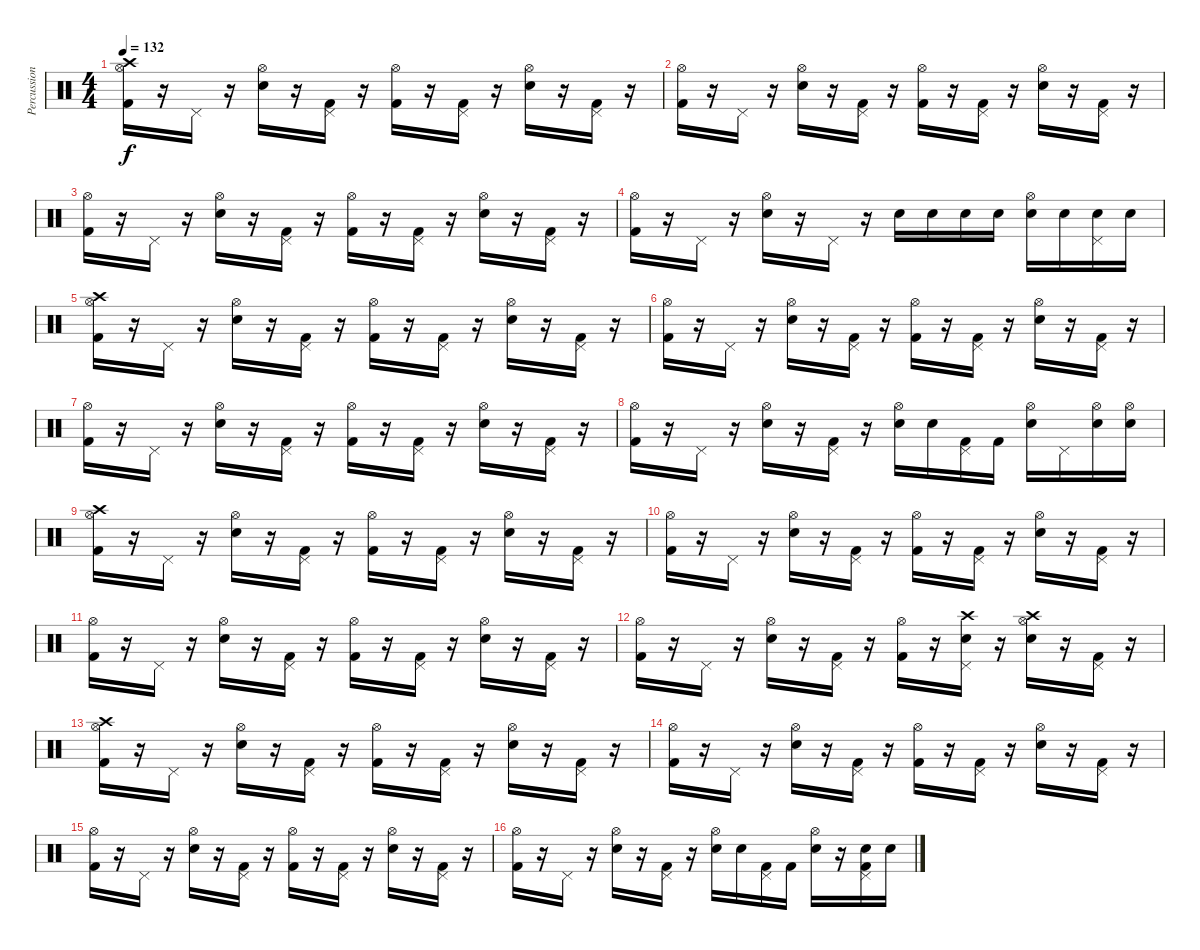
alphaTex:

\track ("Percussion" "Percussion") {instrument percussion}
\staff {score}
\articulation defaults
\ts (4 4)
\tempo 132
\clef neutral
\ks c
("Crash high (hit)" "Hi-Hat (open)" "Kick (hit) 2").16{dy f} r.16 "Pedal Hi-Hat (hit)".16 r.16 ("Hi-Hat (open)" "Snare (hit) 2").16 r.16 ("Pedal Hi-Hat (hit)" "Kick (hit) 2").16 r.16 ("Hi-Hat (open)" "Kick (hit) 2").16 r.16 ("Pedal Hi-Hat (hit)" "Kick (hit) 2").16 r.16 ("Hi-Hat (open)" "Snare (hit) 2").16 r.16 ("Pedal Hi-Hat (hit)" "Kick (hit) 2").16 r.16 |
("Kick (hit) 2" "Hi-Hat (open)").16 r.16 "Pedal Hi-Hat (hit)".16 r.16 ("Snare (hit) 2" "Hi-Hat (open)").16 r.16 ("Kick (hit) 2" "Pedal Hi-Hat (hit)").16 r.16 ("Kick (hit) 2" "Hi-Hat (open)").16 r.16 ("Kick (hit) 2" "Pedal Hi-Hat (hit)").16 r.16 ("Snare (hit) 2" "Hi-Hat (open)").16 r.16 ("Kick (hit) 2" "Pedal Hi-Hat (hit)").16 r.16 |
("Kick (hit) 2" "Hi-Hat (open)").16 r.16 "Pedal Hi-Hat (hit)".16 r.16 ("Snare (hit) 2" "Hi-Hat (open)").16 r.16 ("Kick (hit) 2" "Pedal Hi-Hat (hit)").16 r.16 ("Kick (hit) 2" "Hi-Hat (open)").16 r.16 ("Kick (hit) 2" "Pedal Hi-Hat (hit)").16 r.16 ("Snare (hit) 2" "Hi-Hat (open)").16 r.16 ("Kick (hit) 2" "Pedal Hi-Hat (hit)").16 r.16 |
("Kick (hit) 2" "Hi-Hat (open)").16 r.16 "Pedal Hi-Hat (hit)".16 r.16 ("Snare (hit) 2" "Hi-Hat (open)").16 r.16 "Pedal Hi-Hat (hit)".16 r.16 "Snare (hit) 2".16 "Snare (hit) 2".16 "Snare (hit) 2".16 "Snare (hit) 2".16 ("Snare (hit) 2" "Hi-Hat (open)").16 "Snare (hit) 2".16 ("Snare (hit) 2" "Pedal Hi-Hat (hit)").16 "Snare (hit) 2".16 |
("Kick (hit) 2" "Crash high (hit)" "Hi-Hat (open)").16 r.16 "Pedal Hi-Hat (hit)".16 r.16 ("Snare (hit) 2" "Hi-Hat (open)").16 r.16 ("Kick (hit) 2" "Pedal Hi-Hat (hit)").16 r.16 ("Kick (hit) 2" "Hi-Hat (open)").16 r.16 ("Kick (hit) 2" "Pedal Hi-Hat (hit)").16 r.16 ("Snare (hit) 2" "Hi-Hat (open)").16 r.16 ("Kick (hit) 2" "Pedal Hi-Hat (hit)").16 r.16 |
("Kick (hit) 2" "Hi-Hat (open)").16 r.16 "Pedal Hi-Hat (hit)".16 r.16 ("Snare (hit) 2" "Hi-Hat (open)").16 r.16 ("Kick (hit) 2" "Pedal Hi-Hat (hit)").16 r.16 ("Kick (hit) 2" "Hi-Hat (open)").16 r.16 ("Kick (hit) 2" "Pedal Hi-Hat (hit)").16 r.16 ("Snare (hit) 2" "Hi-Hat (open)").16 r.16 ("Kick (hit) 2" "Pedal Hi-Hat (hit)").16 r.16 |
("Kick (hit) 2" "Hi-Hat (open)").16 r.16 "Pedal Hi-Hat (hit)".16 r.16 ("Snare (hit) 2" "Hi-Hat (open)").16 r.16 ("Kick (hit) 2" "Pedal Hi-Hat (hit)").16 r.16 ("Kick (hit) 2" "Hi-Hat (open)").16 r.16 ("Kick (hit) 2" "Pedal Hi-Hat (hit)").16 r.16 ("Snare (hit) 2" "Hi-Hat (open)").16 r.16 ("Kick (hit) 2" "Pedal Hi-Hat (hit)").16 r.16 |
("Hi-Hat (open)" "Kick (hit) 2").16 r.16 "Pedal Hi-Hat (hit)".16 r.16 ("Hi-Hat (open)" "Snare (hit) 2").16 r.16 ("Pedal Hi-Hat (hit)" "Kick (hit) 2").16 r.16 ("Snare (hit) 2" "Hi-Hat (open)").16 "Snare (hit) 2".16 ("Kick (hit) 2" "Pedal Hi-Hat (hit)").16 "Kick (hit) 2".16 ("Snare (hit) 2" "Hi-Hat (open)").16 "Pedal Hi-Hat (hit)".16 ("Snare (hit) 2" "Hi-Hat (open)").16 ("Snare (hit) 2" "Hi-Hat (open)").16 |
("Crash high (hit)" "Hi-Hat (open)" "Kick (hit) 2").16 r.16 "Pedal Hi-Hat (hit)".16 r.16 ("Hi-Hat (open)" "Snare (hit) 2").16 r.16 ("Pedal Hi-Hat (hit)" "Kick (hit) 2").16 r.16 ("Hi-Hat (open)" "Kick (hit) 2").16 r.16 ("Pedal Hi-Hat (hit)" "Kick (hit) 2").16 r.16 ("Hi-Hat (open)" "Snare (hit) 2").16 r.16 ("Pedal Hi-Hat (hit)" "Kick (hit) 2").16 r.16 |
("Kick (hit) 2" "Hi-Hat (open)").16 r.16 "Pedal Hi-Hat (hit)".16 r.16 ("Snare (hit) 2" "Hi-Hat (open)").16 r.16 ("Kick (hit) 2" "Pedal Hi-Hat (hit)").16 r.16 ("Kick (hit) 2" "Hi-Hat (open)").16 r.16 ("Kick (hit) 2" "Pedal Hi-Hat (hit)").16 r.16 ("Snare (hit) 2" "Hi-Hat (open)").16 r.16 ("Kick (hit) 2" "Pedal Hi-Hat (hit)").16 r.16 |
("Kick (hit) 2" "Hi-Hat (open)").16 r.16 "Pedal Hi-Hat (hit)".16 r.16 ("Snare (hit) 2" "Hi-Hat (open)").16 r.16 ("Kick (hit) 2" "Pedal Hi-Hat (hit)").16 r.16 ("Kick (hit) 2" "Hi-Hat (open)").16 r.16 ("Kick (hit) 2" "Pedal Hi-Hat (hit)").16 r.16 ("Snare (hit) 2" "Hi-Hat (open)").16 r.16 ("Kick (hit) 2" "Pedal Hi-Hat (hit)").16 r.16 |
("Kick (hit) 2" "Hi-Hat (open)").16 r.16 "Pedal Hi-Hat (hit)".16 r.16 ("Snare (hit) 2" "Hi-Hat (open)").16 r.16 ("Kick (hit) 2" "Pedal Hi-Hat (hit)").16 r.16 ("Kick (hit) 2" "Hi-Hat (open)").16 r.16 ("Pedal Hi-Hat (hit)" "Crash high (hit)" "Snare (hit) 2").16 r.16 ("Snare (hit) 2" "Hi-Hat (open)" "Crash high (hit)").16 r.16 ("Kick (hit) 2" "Pedal Hi-Hat (hit)").16 r.16 |
("Crash high (hit)" "Hi-Hat (open)" "Kick (hit) 2").16 r.16 "Pedal Hi-Hat (hit)".16 r.16 ("Hi-Hat (open)" "Snare (hit) 2").16 r.16 ("Pedal Hi-Hat (hit)" "Kick (hit) 2").16 r.16 ("Hi-Hat (open)" "Kick (hit) 2").16 r.16 ("Pedal Hi-Hat (hit)" "Kick (hit) 2").16 r.16 ("Hi-Hat (open)" "Snare (hit) 2").16 r.16 ("Pedal Hi-Hat (hit)" "Kick (hit) 2").16 r.16 |
("Kick (hit) 2" "Hi-Hat (open)").16 r.16 "Pedal Hi-Hat (hit)".16 r.16 ("Snare (hit) 2" "Hi-Hat (open)").16 r.16 ("Kick (hit) 2" "Pedal Hi-Hat (hit)").16 r.16 ("Kick (hit) 2" "Hi-Hat (open)").16 r.16 ("Kick (hit) 2" "Pedal Hi-Hat (hit)").16 r.16 ("Snare (hit) 2" "Hi-Hat (open)").16 r.16 ("Kick (hit) 2" "Pedal Hi-Hat (hit)").16 r.16 |
("Kick (hit) 2" "Hi-Hat (open)").16 r.16 "Pedal Hi-Hat (hit)".16 r.16 ("Snare (hit) 2" "Hi-Hat (open)").16 r.16 ("Kick (hit) 2" "Pedal Hi-Hat (hit)").16 r.16 ("Kick (hit) 2" "Hi-Hat (open)").16 r.16 ("Kick (hit) 2" "Pedal Hi-Hat (hit)").16 r.16 ("Snare (hit) 2" "Hi-Hat (open)").16 r.16 ("Kick (hit) 2" "Pedal Hi-Hat (hit)").16 r.16 |
("Hi-Hat (open)" "Kick (hit) 2").16 r.16 "Pedal Hi-Hat (hit)".16 r.16 ("Snare (hit) 2" "Hi-Hat (open)").16 r.16 ("Kick (hit) 2" "Pedal Hi-Hat (hit)").16 r.16 ("Hi-Hat (open)" "Snare (hit) 2").16 "Snare (hit) 2".16 ("Kick (hit) 2" "Pedal Hi-Hat (hit)").16 "Kick (hit) 2".16 ("Snare (hit) 2" "Hi-Hat (open)").16 r.16 ("Kick (hit) 2" "Pedal Hi-Hat (hit)" "Snare (hit) 2").16 "Snare (hit) 2".16
